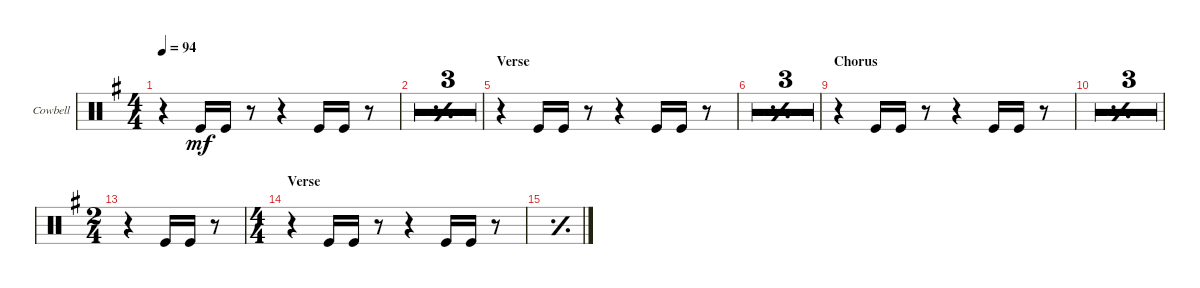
\defaultSystemsLayout 4
\bracketExtendMode groupsimilarinstruments
\firstSystemTrackNameOrientation horizontal
\otherSystemsTrackNameOrientation horizontal
\track ("Cowbell" "Cowbell") {multiBarRest instrument percussion}
\staff {score}
\articulation defaults
\ts (4 4)
\tempo 94
\clef neutral
\ks eminor
r.4{dy mf} "Kick (hit)".16 "Kick (hit)".16 r.8 r.4 "Kick (hit)".16 "Kick (hit)".16 r.8 |
\simile simple
|
|
\barLineRight lightlight
|
\section ("" "Verse")
\simile none
r.4 "Kick (hit)".16 "Kick (hit)".16 r.8 r.4 "Kick (hit)".16 "Kick (hit)".16 r.8 |
\simile simple
|
|
|
\section ("" "Chorus")
\simile none
r.4 "Kick (hit)".16 "Kick (hit)".16 r.8 r.4 "Kick (hit)".16 "Kick (hit)".16 r.8 |
\simile simple
|
|
|
\ts (2 4)
\simile none
r.4 "Kick (hit)".16 "Kick (hit)".16 r.8 |
\ts (4 4)
\section ("" "Verse")
r.4 "Kick (hit)".16 "Kick (hit)".16 r.8 r.4 "Kick (hit)".16 "Kick (hit)".16 r.8 |
\simile simple
